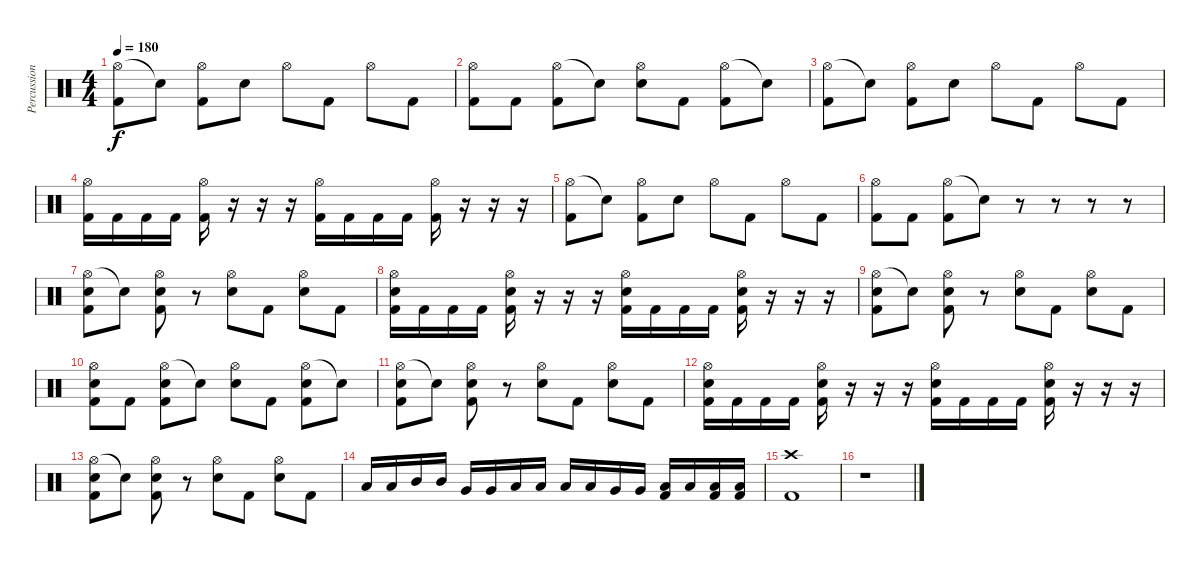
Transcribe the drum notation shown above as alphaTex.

\track ("Percussion" "Percussion") {instrument percussion}
\staff {score}
\articulation defaults
\ts (4 4)
\tempo 180
\clef neutral
\ks c
("Hi-Hat (open)" "Kick (hit) 2").8{dy f} "Snare (hit)"{t}.8 ("Hi-Hat (open)" "Kick (hit) 2").8 "Electric Snare (hit)".8 "Hi-Hat (open)".8 "Kick (hit) 2".8 "Hi-Hat (open)".8 "Kick (hit) 2".8 |
("Hi-Hat (open)" "Kick (hit) 2").8 "Kick (hit) 2".8 ("Hi-Hat (open)" "Kick (hit) 2").8 "Snare (hit)"{t}.8 ("Hi-Hat (open)" "Electric Snare (hit)").8 "Kick (hit) 2".8 ("Hi-Hat (open)" "Kick (hit) 2").8 "Snare (hit)"{t}.8 |
("Hi-Hat (open)" "Kick (hit) 2").8 "Snare (hit)"{t}.8 ("Hi-Hat (open)" "Kick (hit) 2").8 "Electric Snare (hit)".8 "Hi-Hat (open)".8 "Kick (hit) 2".8 "Hi-Hat (open)".8 "Kick (hit) 2".8 |
("Hi-Hat (open)" "Kick (hit) 2").16 "Kick (hit) 2".16 "Kick (hit) 2".16 "Kick (hit) 2".16 ("Hi-Hat (open)" "Kick (hit) 2").16 r.16 r.16 r.16 ("Hi-Hat (open)" "Kick (hit) 2").16 "Kick (hit) 2".16 "Kick (hit) 2".16 "Kick (hit) 2".16 ("Hi-Hat (open)" "Kick (hit) 2").16 r.16 r.16 r.16 |
("Hi-Hat (open)" "Kick (hit) 2").8 "Snare (hit)"{t}.8 ("Hi-Hat (open)" "Kick (hit) 2").8 "Electric Snare (hit)".8 "Hi-Hat (open)".8 "Kick (hit) 2".8 "Hi-Hat (open)".8 "Kick (hit) 2".8 |
("Hi-Hat (open)" "Kick (hit) 2").8 "Kick (hit) 2".8 ("Hi-Hat (open)" "Kick (hit) 2").8 "Snare (hit)"{t}.8 r.8 r.8 r.8 r.8 |
("Hi-Hat (open)" "Electric Snare (hit)" "Kick (hit) 2").8 "Snare (hit)"{t}.8 ("Hi-Hat (open)" "Electric Snare (hit)" "Kick (hit) 2").8 r.8 ("Hi-Hat (open)" "Electric Snare (hit)").8 "Kick (hit) 2".8 ("Hi-Hat (open)" "Electric Snare (hit)").8 "Kick (hit) 2".8 |
("Hi-Hat (open)" "Electric Snare (hit)" "Kick (hit) 2").16 "Kick (hit) 2".16 "Kick (hit) 2".16 "Kick (hit) 2".16 ("Hi-Hat (open)" "Electric Snare (hit)" "Kick (hit) 2").16 r.16 r.16 r.16 ("Hi-Hat (open)" "Electric Snare (hit)" "Kick (hit) 2").16 "Kick (hit) 2".16 "Kick (hit) 2".16 "Kick (hit) 2".16 ("Hi-Hat (open)" "Electric Snare (hit)" "Kick (hit) 2").16 r.16 r.16 r.16 |
("Hi-Hat (open)" "Electric Snare (hit)" "Kick (hit) 2").8 "Snare (hit)"{t}.8 ("Hi-Hat (open)" "Electric Snare (hit)" "Kick (hit) 2").8 r.8 ("Hi-Hat (open)" "Electric Snare (hit)").8 "Kick (hit) 2".8 ("Hi-Hat (open)" "Electric Snare (hit)").8 "Kick (hit) 2".8 |
("Hi-Hat (open)" "Electric Snare (hit)" "Kick (hit) 2").8 "Kick (hit) 2".8 ("Hi-Hat (open)" "Electric Snare (hit)" "Kick (hit) 2").8 "Snare (hit)"{t}.8 ("Hi-Hat (open)" "Electric Snare (hit)").8 "Kick (hit) 2".8 ("Hi-Hat (open)" "Electric Snare (hit)" "Kick (hit) 2").8 "Snare (hit)"{t}.8 |
("Hi-Hat (open)" "Electric Snare (hit)" "Kick (hit) 2").8 "Snare (hit)"{t}.8 ("Hi-Hat (open)" "Electric Snare (hit)" "Kick (hit) 2").8 r.8 ("Hi-Hat (open)" "Electric Snare (hit)").8 "Kick (hit) 2".8 ("Hi-Hat (open)" "Electric Snare (hit)").8 "Kick (hit) 2".8 |
("Hi-Hat (open)" "Electric Snare (hit)" "Kick (hit) 2").16 "Kick (hit) 2".16 "Kick (hit) 2".16 "Kick (hit) 2".16 ("Hi-Hat (open)" "Electric Snare (hit)" "Kick (hit) 2").16 r.16 r.16 r.16 ("Hi-Hat (open)" "Electric Snare (hit)" "Kick (hit) 2").16 "Kick (hit) 2".16 "Kick (hit) 2".16 "Kick (hit) 2".16 ("Hi-Hat (open)" "Electric Snare (hit)" "Kick (hit) 2").16 r.16 r.16 r.16 |
("Hi-Hat (open)" "Electric Snare (hit)" "Kick (hit) 2").8 "Snare (hit)"{t}.8 ("Hi-Hat (open)" "Electric Snare (hit)" "Kick (hit) 2").8 r.8 ("Hi-Hat (open)" "Electric Snare (hit)").8 "Kick (hit) 2".8 ("Hi-Hat (open)" "Electric Snare (hit)").8 "Kick (hit) 2".8 |
"Low Tom (hit)".16 "Low Tom (hit)".16 "Mid Tom (hit)".16 "Mid Tom (hit)".16 "Very Low Tom (hit)".16 "Very Low Tom (hit)".16 "Low Tom (hit)".16 "Low Tom (hit)".16 "Low Floor Tom (hit)".16 "Low Floor Tom (hit)".16 "Very Low Tom (hit)".16 "Very Low Tom (hit)".16 ("Low Floor Tom (hit)" "Kick (hit) 2").16 "Low Floor Tom (hit)".16 ("Low Floor Tom (hit)" "Kick (hit) 2").16 ("Low Floor Tom (hit)" "Kick (hit) 2").16 |
("Crash high (hit)" "Kick (hit) 2").1 |
r.1
